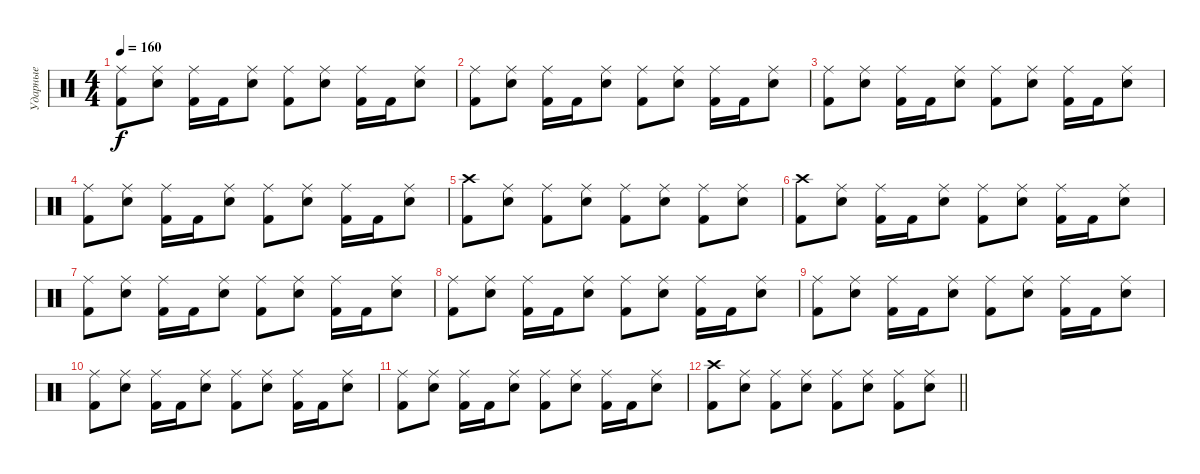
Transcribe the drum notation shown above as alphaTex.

\track ("Ударные" "Ударные") {instrument percussion}
\staff {score}
\articulation defaults
\ts (4 4)
\tempo 160
\clef neutral
\ks c
("Ride (middle)" "Kick (hit) 2").8{dy f} ("Ride (middle)" "Electric Snare (hit)").8 ("Ride (middle)" "Kick (hit) 2").16 "Kick (hit) 2".16 ("Ride (middle)" "Electric Snare (hit)").8 ("Ride (middle)" "Kick (hit) 2").8 ("Ride (middle)" "Electric Snare (hit)").8 ("Ride (middle)" "Kick (hit) 2").16 "Kick (hit) 2".16 ("Ride (middle)" "Electric Snare (hit)").8 |
("Ride (middle)" "Kick (hit) 2").8 ("Ride (middle)" "Electric Snare (hit)").8 ("Ride (middle)" "Kick (hit) 2").16 "Kick (hit) 2".16 ("Ride (middle)" "Electric Snare (hit)").8 ("Ride (middle)" "Kick (hit) 2").8 ("Ride (middle)" "Electric Snare (hit)").8 ("Ride (middle)" "Kick (hit) 2").16 "Kick (hit) 2".16 ("Ride (middle)" "Electric Snare (hit)").8 |
("Ride (middle)" "Kick (hit) 2").8 ("Ride (middle)" "Electric Snare (hit)").8 ("Ride (middle)" "Kick (hit) 2").16 "Kick (hit) 2".16 ("Ride (middle)" "Electric Snare (hit)").8 ("Ride (middle)" "Kick (hit) 2").8 ("Ride (middle)" "Electric Snare (hit)").8 ("Ride (middle)" "Kick (hit) 2").16 "Kick (hit) 2".16 ("Ride (middle)" "Electric Snare (hit)").8 |
("Ride (middle)" "Kick (hit) 2").8 ("Ride (middle)" "Electric Snare (hit)").8 ("Ride (middle)" "Kick (hit) 2").16 "Kick (hit) 2".16 ("Ride (middle)" "Electric Snare (hit)").8 ("Ride (middle)" "Kick (hit) 2").8 ("Ride (middle)" "Electric Snare (hit)").8 ("Ride (middle)" "Kick (hit) 2").16 "Kick (hit) 2".16 ("Ride (middle)" "Electric Snare (hit)").8 |
("Crash high (hit)" "Kick (hit) 2").8 ("Ride (middle)" "Electric Snare (hit)").8 ("Ride (middle)" "Kick (hit) 2").8 ("Ride (middle)" "Electric Snare (hit)").8 ("Ride (middle)" "Kick (hit) 2").8 ("Ride (middle)" "Electric Snare (hit)").8 ("Ride (middle)" "Kick (hit) 2").8 ("Ride (middle)" "Electric Snare (hit)").8 |
("Crash high (hit)" "Kick (hit) 2").8 ("Ride (middle)" "Electric Snare (hit)").8 ("Ride (middle)" "Kick (hit) 2").16 "Kick (hit) 2".16 ("Ride (middle)" "Electric Snare (hit)").8 ("Ride (middle)" "Kick (hit) 2").8 ("Ride (middle)" "Electric Snare (hit)").8 ("Ride (middle)" "Kick (hit) 2").16 "Kick (hit) 2".16 ("Ride (middle)" "Electric Snare (hit)").8 |
("Ride (middle)" "Kick (hit) 2").8 ("Ride (middle)" "Electric Snare (hit)").8 ("Ride (middle)" "Kick (hit) 2").16 "Kick (hit) 2".16 ("Ride (middle)" "Electric Snare (hit)").8 ("Ride (middle)" "Kick (hit) 2").8 ("Ride (middle)" "Electric Snare (hit)").8 ("Ride (middle)" "Kick (hit) 2").16 "Kick (hit) 2".16 ("Ride (middle)" "Electric Snare (hit)").8 |
("Ride (middle)" "Kick (hit) 2").8 ("Ride (middle)" "Electric Snare (hit)").8 ("Ride (middle)" "Kick (hit) 2").16 "Kick (hit) 2".16 ("Ride (middle)" "Electric Snare (hit)").8 ("Ride (middle)" "Kick (hit) 2").8 ("Ride (middle)" "Electric Snare (hit)").8 ("Ride (middle)" "Kick (hit) 2").16 "Kick (hit) 2".16 ("Ride (middle)" "Electric Snare (hit)").8 |
("Ride (middle)" "Kick (hit) 2").8 ("Ride (middle)" "Electric Snare (hit)").8 ("Ride (middle)" "Kick (hit) 2").16 "Kick (hit) 2".16 ("Ride (middle)" "Electric Snare (hit)").8 ("Ride (middle)" "Kick (hit) 2").8 ("Ride (middle)" "Electric Snare (hit)").8 ("Ride (middle)" "Kick (hit) 2").16 "Kick (hit) 2".16 ("Ride (middle)" "Electric Snare (hit)").8 |
("Ride (middle)" "Kick (hit) 2").8 ("Ride (middle)" "Electric Snare (hit)").8 ("Ride (middle)" "Kick (hit) 2").16 "Kick (hit) 2".16 ("Ride (middle)" "Electric Snare (hit)").8 ("Ride (middle)" "Kick (hit) 2").8 ("Ride (middle)" "Electric Snare (hit)").8 ("Ride (middle)" "Kick (hit) 2").16 "Kick (hit) 2".16 ("Ride (middle)" "Electric Snare (hit)").8 |
("Ride (middle)" "Kick (hit) 2").8 ("Ride (middle)" "Electric Snare (hit)").8 ("Ride (middle)" "Kick (hit) 2").16 "Kick (hit) 2".16 ("Ride (middle)" "Electric Snare (hit)").8 ("Ride (middle)" "Kick (hit) 2").8 ("Ride (middle)" "Electric Snare (hit)").8 ("Ride (middle)" "Kick (hit) 2").16 "Kick (hit) 2".16 ("Ride (middle)" "Electric Snare (hit)").8 |
\barLineRight lightlight
("Crash high (hit)" "Kick (hit) 2").8 ("Ride (middle)" "Electric Snare (hit)").8 ("Ride (middle)" "Kick (hit) 2").8 ("Ride (middle)" "Electric Snare (hit)").8 ("Ride (middle)" "Kick (hit) 2").8 ("Ride (middle)" "Electric Snare (hit)").8 ("Ride (middle)" "Kick (hit) 2").8 ("Ride (middle)" "Electric Snare (hit)").8
